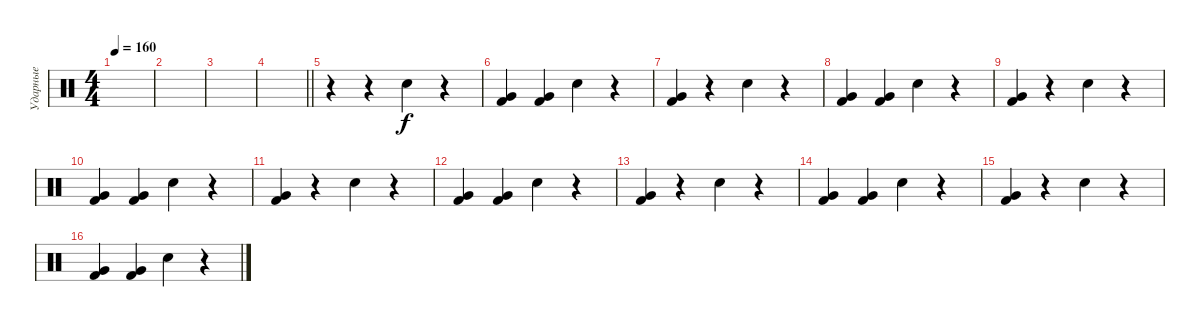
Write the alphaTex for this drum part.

\track ("Ударные" "Ударные") {instrument percussion}
\staff {score}
\articulation defaults
\ts (4 4)
\tempo 160
\clef neutral
\ks c
|
|
|
\barLineRight lightlight
|
r.4 r.4 "Snare (hit) 2".4 r.4 |
("Very Low Tom (hit)" "Kick (hit) 2").4 ("Very Low Tom (hit)" "Kick (hit) 2").4 "Snare (hit) 2".4 r.4 |
("Very Low Tom (hit)" "Kick (hit) 2").4 r.4 "Snare (hit) 2".4 r.4 |
("Very Low Tom (hit)" "Kick (hit) 2").4 ("Very Low Tom (hit)" "Kick (hit) 2").4 "Snare (hit) 2".4 r.4 |
("Very Low Tom (hit)" "Kick (hit) 2").4 r.4 "Snare (hit) 2".4 r.4 |
("Very Low Tom (hit)" "Kick (hit) 2").4 ("Very Low Tom (hit)" "Kick (hit) 2").4 "Snare (hit) 2".4 r.4 |
("Very Low Tom (hit)" "Kick (hit) 2").4 r.4 "Snare (hit) 2".4 r.4 |
("Very Low Tom (hit)" "Kick (hit) 2").4 ("Very Low Tom (hit)" "Kick (hit) 2").4 "Snare (hit) 2".4 r.4 |
("Very Low Tom (hit)" "Kick (hit) 2").4 r.4 "Snare (hit) 2".4 r.4 |
("Very Low Tom (hit)" "Kick (hit) 2").4 ("Very Low Tom (hit)" "Kick (hit) 2").4 "Snare (hit) 2".4 r.4 |
("Very Low Tom (hit)" "Kick (hit) 2").4 r.4 "Snare (hit) 2".4 r.4 |
("Very Low Tom (hit)" "Kick (hit) 2").4 ("Very Low Tom (hit)" "Kick (hit) 2").4 "Snare (hit) 2".4 r.4
